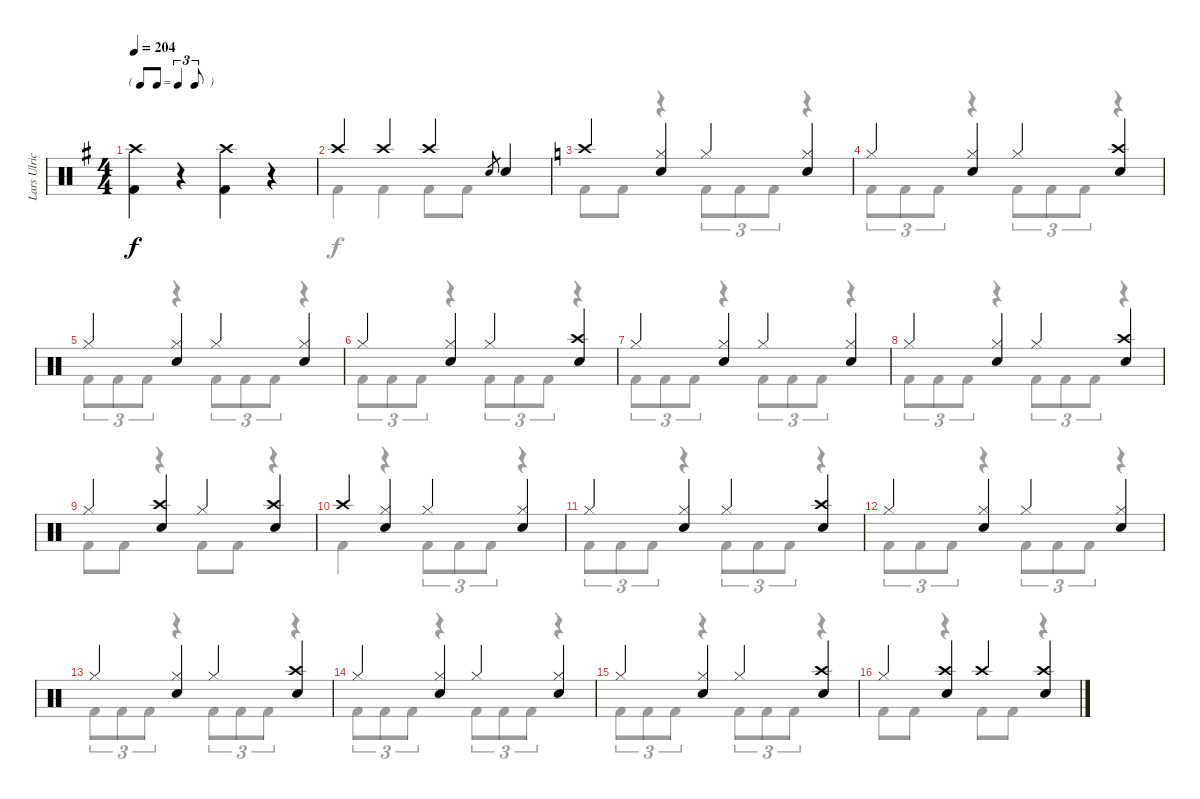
\track ("Lars Ulrich" "Lars Ulric") {instrument percussion}
\staff {score}
\articulation defaults
\voice
\ts (4 4)
\tf triplet8th
\tempo 204
\clef neutral
\ks eminor
("Crash high (hit)" "Kick (hit) 2").4{dy f} r.4 ("Crash high (hit)" "Kick (hit) 2").4 r.4 |
"Crash high (hit)".4 "Crash high (hit)".4 "Crash high (hit)".4 "Snare (hit) 2"{h}.8{gr} "Snare (hit) 2".4 |
\ks c "Crash high (hit)".4
("Hi-Hat (closed)" "Snare (hit) 2").4 "Hi-Hat (closed)".4 ("Hi-Hat (closed)" "Snare (hit) 2").4 |
"Hi-Hat (closed)".4 ("Hi-Hat (closed)" "Snare (hit) 2").4 "Hi-Hat (closed)".4 ("Crash high (hit)" "Snare (hit) 2").4 |
"Hi-Hat (closed)".4 ("Hi-Hat (closed)" "Snare (hit) 2").4 "Hi-Hat (closed)".4 ("Hi-Hat (closed)" "Snare (hit) 2").4 |
"Hi-Hat (closed)".4 ("Hi-Hat (closed)" "Snare (hit) 2").4 "Hi-Hat (closed)".4 ("Crash high (hit)" "Snare (hit) 2").4 |
"Hi-Hat (closed)".4 ("Hi-Hat (closed)" "Snare (hit) 2").4 "Hi-Hat (closed)".4 ("Hi-Hat (closed)" "Snare (hit) 2").4 |
"Hi-Hat (closed)".4 ("Hi-Hat (closed)" "Snare (hit) 2").4 "Hi-Hat (closed)".4 ("Crash high (hit)" "Snare (hit) 2").4 |
"Hi-Hat (closed)".4 ("Crash high (hit)" "Snare (hit) 2").4 "Hi-Hat (closed)".4 ("Crash high (hit)" "Snare (hit) 2").4 |
"Crash high (hit)".4 ("Hi-Hat (closed)" "Snare (hit) 2").4 "Hi-Hat (closed)".4 ("Hi-Hat (closed)" "Snare (hit) 2").4 |
"Hi-Hat (closed)".4 ("Hi-Hat (closed)" "Snare (hit) 2").4 "Hi-Hat (closed)".4 ("Crash high (hit)" "Snare (hit) 2").4 |
"Hi-Hat (closed)".4 ("Hi-Hat (closed)" "Snare (hit) 2").4 "Hi-Hat (closed)".4 ("Hi-Hat (closed)" "Snare (hit) 2").4 |
"Hi-Hat (closed)".4 ("Hi-Hat (closed)" "Snare (hit) 2").4 "Hi-Hat (closed)".4 ("Crash high (hit)" "Snare (hit) 2").4 |
"Hi-Hat (closed)".4 ("Hi-Hat (closed)" "Snare (hit) 2").4 "Hi-Hat (closed)".4 ("Hi-Hat (closed)" "Snare (hit) 2").4 |
"Hi-Hat (closed)".4 ("Hi-Hat (closed)" "Snare (hit) 2").4 "Hi-Hat (closed)".4 ("Crash high (hit)" "Snare (hit) 2").4 |
"Hi-Hat (closed)".4 ("Crash high (hit)" "Snare (hit) 2").4 "Crash high (hit)".4 ("Crash high (hit)" "Snare (hit) 2").4
\voice
\clef neutral
\ottava regular
\simile none
\ks eminor
|
"Kick (hit) 2".4 "Kick (hit) 2".4 "Kick (hit) 2".8 "Kick (hit) 2".8 |
\ks c "Kick (hit) 2".8 "Kick (hit) 2".8
r.4 "Kick (hit) 2".8{tu (3 2)} "Kick (hit) 2".8{tu (3 2)} "Kick (hit) 2".8{tu (3 2)} r.4 |
"Kick (hit) 2".8{tu (3 2)} "Kick (hit) 2".8{tu (3 2)} "Kick (hit) 2".8{tu (3 2)} r.4 "Kick (hit) 2".8{tu (3 2)} "Kick (hit) 2".8{tu (3 2)} "Kick (hit) 2".8{tu (3 2)} r.4 |
"Kick (hit) 2".8{tu (3 2)} "Kick (hit) 2".8{tu (3 2)} "Kick (hit) 2".8{tu (3 2)} r.4 "Kick (hit) 2".8{tu (3 2)} "Kick (hit) 2".8{tu (3 2)} "Kick (hit) 2".8{tu (3 2)} r.4 |
"Kick (hit) 2".8{tu (3 2)} "Kick (hit) 2".8{tu (3 2)} "Kick (hit) 2".8{tu (3 2)} r.4 "Kick (hit) 2".8{tu (3 2)} "Kick (hit) 2".8{tu (3 2)} "Kick (hit) 2".8{tu (3 2)} r.4 |
"Kick (hit) 2".8{tu (3 2)} "Kick (hit) 2".8{tu (3 2)} "Kick (hit) 2".8{tu (3 2)} r.4 "Kick (hit) 2".8{tu (3 2)} "Kick (hit) 2".8{tu (3 2)} "Kick (hit) 2".8{tu (3 2)} r.4 |
"Kick (hit) 2".8{tu (3 2)} "Kick (hit) 2".8{tu (3 2)} "Kick (hit) 2".8{tu (3 2)} r.4 "Kick (hit) 2".8{tu (3 2)} "Kick (hit) 2".8{tu (3 2)} "Kick (hit) 2".8{tu (3 2)} r.4 |
"Kick (hit) 2".8 "Kick (hit) 2".8 r.4 "Kick (hit) 2".8 "Kick (hit) 2".8 r.4 |
"Kick (hit) 2".4 r.4 "Kick (hit) 2".8{tu (3 2)} "Kick (hit) 2".8{tu (3 2)} "Kick (hit) 2".8{tu (3 2)} r.4 |
"Kick (hit) 2".8{tu (3 2)} "Kick (hit) 2".8{tu (3 2)} "Kick (hit) 2".8{tu (3 2)} r.4 "Kick (hit) 2".8{tu (3 2)} "Kick (hit) 2".8{tu (3 2)} "Kick (hit) 2".8{tu (3 2)} r.4 |
"Kick (hit) 2".8{tu (3 2)} "Kick (hit) 2".8{tu (3 2)} "Kick (hit) 2".8{tu (3 2)} r.4 "Kick (hit) 2".8{tu (3 2)} "Kick (hit) 2".8{tu (3 2)} "Kick (hit) 2".8{tu (3 2)} r.4 |
"Kick (hit) 2".8{tu (3 2)} "Kick (hit) 2".8{tu (3 2)} "Kick (hit) 2".8{tu (3 2)} r.4 "Kick (hit) 2".8{tu (3 2)} "Kick (hit) 2".8{tu (3 2)} "Kick (hit) 2".8{tu (3 2)} r.4 |
"Kick (hit) 2".8{tu (3 2)} "Kick (hit) 2".8{tu (3 2)} "Kick (hit) 2".8{tu (3 2)} r.4 "Kick (hit) 2".8{tu (3 2)} "Kick (hit) 2".8{tu (3 2)} "Kick (hit) 2".8{tu (3 2)} r.4 |
"Kick (hit) 2".8{tu (3 2)} "Kick (hit) 2".8{tu (3 2)} "Kick (hit) 2".8{tu (3 2)} r.4 "Kick (hit) 2".8{tu (3 2)} "Kick (hit) 2".8{tu (3 2)} "Kick (hit) 2".8{tu (3 2)} r.4 |
"Kick (hit) 2".8 "Kick (hit) 2".8 r.4 "Kick (hit) 2".8 "Kick (hit) 2".8 r.4
